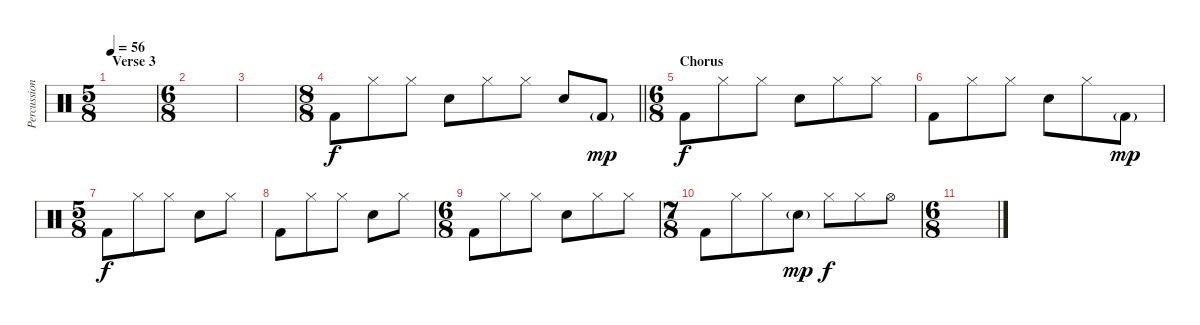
\track ("Percussion" "Percussion") {instrument percussion}
\staff {score}
\articulation defaults
\ts (5 8)
\section ("" "Verse 3")
\tempo 56
\clef neutral
\ks c
|
\ts (6 8)
|
|
\ts (8 8)
\barLineRight lightlight "Kick (hit) 2".8 "Hi-Hat (closed)".8 "Hi-Hat (closed)".8 "Snare (hit) 2".8 "Hi-Hat (closed)".8 "Hi-Hat (closed)".8 "Snare (hit) 2".8 "Kick (hit) 2"{g}.8{dy mp}
|
\ts (6 8)
\section ("" "Chorus")
"Kick (hit) 2".8{dy f} "Hi-Hat (closed)".8 "Hi-Hat (closed)".8 "Snare (hit) 2".8 "Hi-Hat (closed)".8 "Hi-Hat (closed)".8 |
"Kick (hit) 2".8 "Hi-Hat (closed)".8 "Hi-Hat (closed)".8 "Snare (hit) 2".8 "Hi-Hat (closed)".8 "Kick (hit) 2"{g}.8{dy mp} |
\ts (5 8)
"Kick (hit) 2".8{dy f} "Hi-Hat (closed)".8 "Hi-Hat (closed)".8 "Snare (hit) 2".8 "Hi-Hat (closed)".8 |
"Kick (hit) 2".8 "Hi-Hat (closed)".8 "Hi-Hat (closed)".8 "Snare (hit) 2".8 "Hi-Hat (closed)".8 |
\ts (6 8)
"Kick (hit) 2".8 "Hi-Hat (closed)".8 "Hi-Hat (closed)".8 "Snare (hit) 2".8 "Hi-Hat (closed)".8 "Hi-Hat (closed)".8 |
\ts (7 8)
"Kick (hit) 2".8 "Hi-Hat (closed)".8 "Hi-Hat (closed)".8 "Snare (hit) 2"{g}.8{dy mp} "Hi-Hat (closed)".8{dy f} "Hi-Hat (closed)".8 "Hi-Hat (open)".8 |
\ts (6 8)
